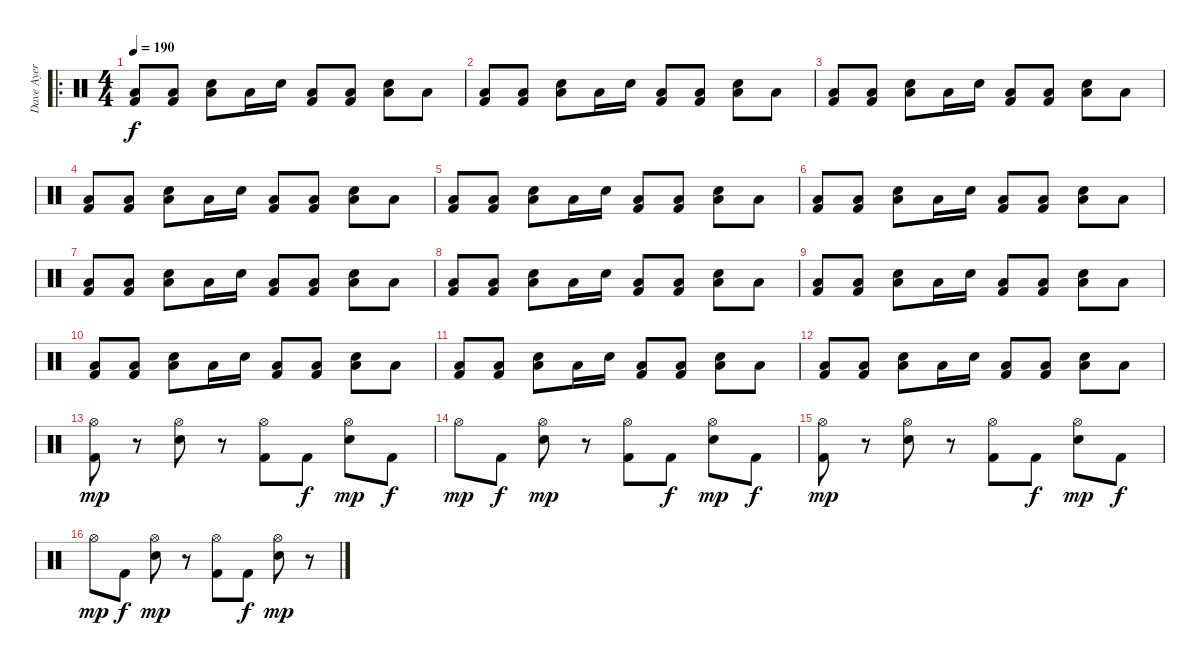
\track ("Dave Ayer" "Dave Ayer") {instrument percussion}
\staff {score}
\articulation defaults
\ro
\ts (4 4)
\tempo 190
\clef neutral
\ks c
("Low Floor Tom (hit)" "Kick (hit) 2").8{dy f} ("Low Floor Tom (hit)" "Kick (hit) 2").8 ("Low Floor Tom (hit)" "Snare (hit) 2").8 "Low Floor Tom (hit)".16 "Snare (hit) 2".16 ("Low Floor Tom (hit)" "Kick (hit) 2").8 ("Low Floor Tom (hit)" "Kick (hit) 2").8 ("Low Floor Tom (hit)" "Snare (hit) 2").8 "Low Floor Tom (hit)".8 |
("Low Floor Tom (hit)" "Kick (hit) 2").8 ("Low Floor Tom (hit)" "Kick (hit) 2").8 ("Low Floor Tom (hit)" "Snare (hit) 2").8 "Low Floor Tom (hit)".16 "Snare (hit) 2".16 ("Low Floor Tom (hit)" "Kick (hit) 2").8 ("Low Floor Tom (hit)" "Kick (hit) 2").8 ("Low Floor Tom (hit)" "Snare (hit) 2").8 "Low Floor Tom (hit)".8 |
("Low Floor Tom (hit)" "Kick (hit) 2").8 ("Low Floor Tom (hit)" "Kick (hit) 2").8 ("Low Floor Tom (hit)" "Snare (hit) 2").8 "Low Floor Tom (hit)".16 "Snare (hit) 2".16 ("Low Floor Tom (hit)" "Kick (hit) 2").8 ("Low Floor Tom (hit)" "Kick (hit) 2").8 ("Low Floor Tom (hit)" "Snare (hit) 2").8 "Low Floor Tom (hit)".8 |
("Low Floor Tom (hit)" "Kick (hit) 2").8 ("Low Floor Tom (hit)" "Kick (hit) 2").8 ("Low Floor Tom (hit)" "Snare (hit) 2").8 "Low Floor Tom (hit)".16 "Snare (hit) 2".16 ("Low Floor Tom (hit)" "Kick (hit) 2").8 ("Low Floor Tom (hit)" "Kick (hit) 2").8 ("Low Floor Tom (hit)" "Snare (hit) 2").8 "Low Floor Tom (hit)".8 |
("Low Floor Tom (hit)" "Kick (hit) 2").8 ("Low Floor Tom (hit)" "Kick (hit) 2").8 ("Low Floor Tom (hit)" "Snare (hit) 2").8 "Low Floor Tom (hit)".16 "Snare (hit) 2".16 ("Low Floor Tom (hit)" "Kick (hit) 2").8 ("Low Floor Tom (hit)" "Kick (hit) 2").8 ("Low Floor Tom (hit)" "Snare (hit) 2").8 "Low Floor Tom (hit)".8 |
("Low Floor Tom (hit)" "Kick (hit) 2").8 ("Low Floor Tom (hit)" "Kick (hit) 2").8 ("Low Floor Tom (hit)" "Snare (hit) 2").8 "Low Floor Tom (hit)".16 "Snare (hit) 2".16 ("Low Floor Tom (hit)" "Kick (hit) 2").8 ("Low Floor Tom (hit)" "Kick (hit) 2").8 ("Low Floor Tom (hit)" "Snare (hit) 2").8 "Low Floor Tom (hit)".8 |
("Low Floor Tom (hit)" "Kick (hit) 2").8 ("Low Floor Tom (hit)" "Kick (hit) 2").8 ("Low Floor Tom (hit)" "Snare (hit) 2").8 "Low Floor Tom (hit)".16 "Snare (hit) 2".16 ("Low Floor Tom (hit)" "Kick (hit) 2").8 ("Low Floor Tom (hit)" "Kick (hit) 2").8 ("Low Floor Tom (hit)" "Snare (hit) 2").8 "Low Floor Tom (hit)".8 |
("Low Floor Tom (hit)" "Kick (hit) 2").8 ("Low Floor Tom (hit)" "Kick (hit) 2").8 ("Low Floor Tom (hit)" "Snare (hit) 2").8 "Low Floor Tom (hit)".16 "Snare (hit) 2".16 ("Low Floor Tom (hit)" "Kick (hit) 2").8 ("Low Floor Tom (hit)" "Kick (hit) 2").8 ("Low Floor Tom (hit)" "Snare (hit) 2").8 "Low Floor Tom (hit)".8 |
("Low Floor Tom (hit)" "Kick (hit) 2").8 ("Low Floor Tom (hit)" "Kick (hit) 2").8 ("Low Floor Tom (hit)" "Snare (hit) 2").8 "Low Floor Tom (hit)".16 "Snare (hit) 2".16 ("Low Floor Tom (hit)" "Kick (hit) 2").8 ("Low Floor Tom (hit)" "Kick (hit) 2").8 ("Low Floor Tom (hit)" "Snare (hit) 2").8 "Low Floor Tom (hit)".8 |
("Low Floor Tom (hit)" "Kick (hit) 2").8 ("Low Floor Tom (hit)" "Kick (hit) 2").8 ("Low Floor Tom (hit)" "Snare (hit) 2").8 "Low Floor Tom (hit)".16 "Snare (hit) 2".16 ("Low Floor Tom (hit)" "Kick (hit) 2").8 ("Low Floor Tom (hit)" "Kick (hit) 2").8 ("Low Floor Tom (hit)" "Snare (hit) 2").8 "Low Floor Tom (hit)".8 |
("Low Floor Tom (hit)" "Kick (hit) 2").8 ("Low Floor Tom (hit)" "Kick (hit) 2").8 ("Low Floor Tom (hit)" "Snare (hit) 2").8 "Low Floor Tom (hit)".16 "Snare (hit) 2".16 ("Low Floor Tom (hit)" "Kick (hit) 2").8 ("Low Floor Tom (hit)" "Kick (hit) 2").8 ("Low Floor Tom (hit)" "Snare (hit) 2").8 "Low Floor Tom (hit)".8 |
("Low Floor Tom (hit)" "Kick (hit) 2").8 ("Low Floor Tom (hit)" "Kick (hit) 2").8 ("Low Floor Tom (hit)" "Snare (hit) 2").8 "Low Floor Tom (hit)".16 "Snare (hit) 2".16 ("Low Floor Tom (hit)" "Kick (hit) 2").8 ("Low Floor Tom (hit)" "Kick (hit) 2").8 ("Low Floor Tom (hit)" "Snare (hit) 2").8 "Low Floor Tom (hit)".8 |
("Hi-Hat (open)" "Kick (hit) 2").8{dy mp} r.8 ("Hi-Hat (open)" "Snare (hit) 2").8 r.8 ("Hi-Hat (open)" "Kick (hit) 2").8 "Kick (hit) 2".8{dy f} ("Hi-Hat (open)" "Snare (hit) 2").8{dy mp} "Kick (hit) 2".8{dy f} |
"Hi-Hat (open)".8{dy mp} "Kick (hit) 2".8{dy f} ("Hi-Hat (open)" "Snare (hit) 2").8{dy mp} r.8 ("Hi-Hat (open)" "Kick (hit) 2").8 "Kick (hit) 2".8{dy f} ("Hi-Hat (open)" "Snare (hit) 2").8{dy mp} "Kick (hit) 2".8{dy f} |
("Hi-Hat (open)" "Kick (hit) 2").8{dy mp} r.8 ("Hi-Hat (open)" "Snare (hit) 2").8 r.8 ("Hi-Hat (open)" "Kick (hit) 2").8 "Kick (hit) 2".8{dy f} ("Hi-Hat (open)" "Snare (hit) 2").8{dy mp} "Kick (hit) 2".8{dy f} |
"Hi-Hat (open)".8{dy mp} "Kick (hit) 2".8{dy f} ("Hi-Hat (open)" "Snare (hit) 2").8{dy mp} r.8 ("Hi-Hat (open)" "Kick (hit) 2").8 "Kick (hit) 2".8{dy f} ("Hi-Hat (open)" "Snare (hit) 2").8{dy mp} r.8
